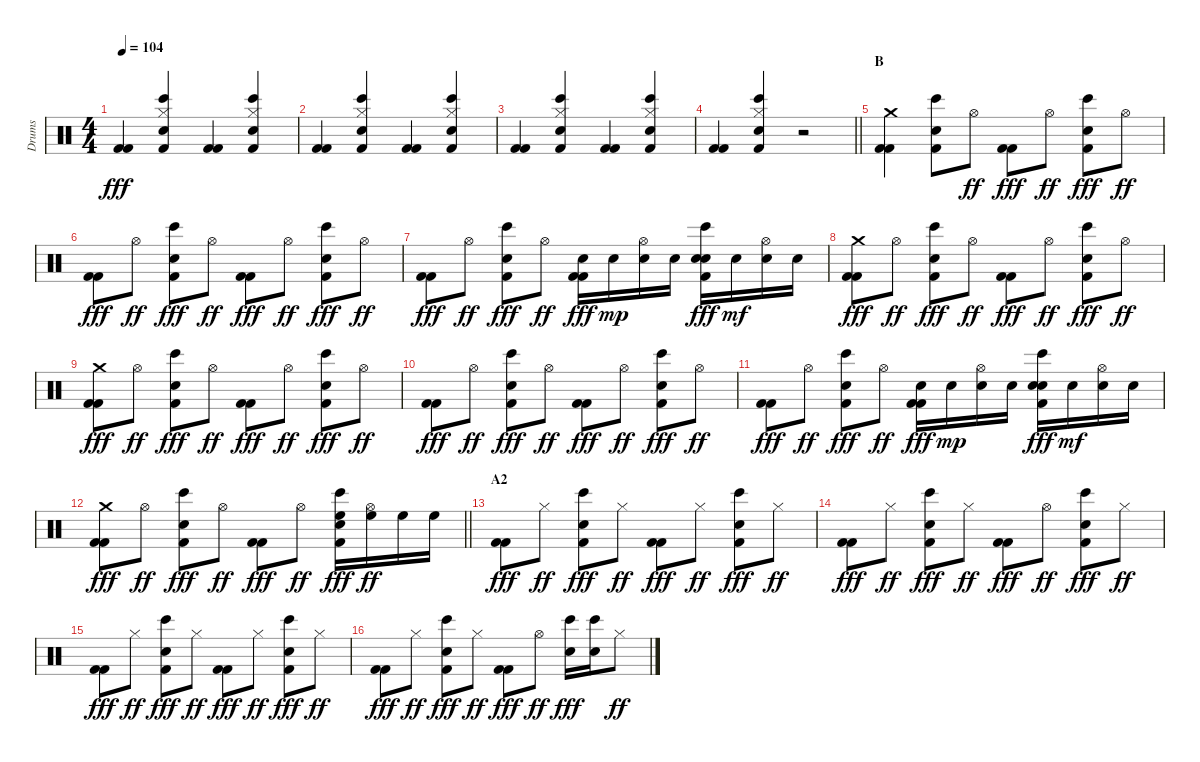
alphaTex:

\track ("Drums" "Drums") {instrument percussion}
\staff {score}
\articulation defaults
\ts (4 4)
\tempo 104
\clef neutral
\ks c
("Kick (hit) 2" "Kick (hit) 2").4{dy fff} ("Hi-Hat (closed)" "Bongo High (hit)" "Snare (hit) 2" "Kick (hit) 2").4 ("Kick (hit) 2" "Kick (hit) 2").4 ("Hi-Hat (closed)" "Bongo High (hit)" "Snare (hit) 2" "Kick (hit) 2").4 |
("Kick (hit) 2" "Kick (hit) 2").4 ("Hi-Hat (closed)" "Bongo High (hit)" "Snare (hit) 2" "Kick (hit) 2").4 ("Kick (hit) 2" "Kick (hit) 2").4 ("Hi-Hat (closed)" "Bongo High (hit)" "Snare (hit) 2" "Kick (hit) 2").4 |
("Kick (hit) 2" "Kick (hit) 2").4 ("Hi-Hat (closed)" "Bongo High (hit)" "Snare (hit) 2" "Kick (hit) 2").4 ("Kick (hit) 2" "Kick (hit) 2").4 ("Hi-Hat (closed)" "Bongo High (hit)" "Snare (hit) 2" "Kick (hit) 2").4 |
\barLineRight lightlight
("Kick (hit) 2" "Kick (hit) 2").4 ("Hi-Hat (closed)" "Bongo High (hit)" "Snare (hit) 2" "Kick (hit) 2").4 r.2 |
\section ("" "B")
("Crash medium (hit)" "Kick (hit) 2" "Kick (hit) 2").4 ("Bongo High (hit)" "Snare (hit) 2" "Kick (hit) 2").8 "Hi-Hat (open)".8{dy ff} ("Kick (hit) 2" "Kick (hit) 2").8{dy fff} "Hi-Hat (open)".8{dy ff} ("Bongo High (hit)" "Snare (hit) 2" "Kick (hit) 2").8{dy fff} "Hi-Hat (open)".8{dy ff} |
("Kick (hit) 2" "Kick (hit) 2").8{dy fff} "Hi-Hat (open)".8{dy ff} ("Bongo High (hit)" "Snare (hit) 2" "Kick (hit) 2").8{dy fff} "Hi-Hat (open)".8{dy ff} ("Kick (hit) 2" "Kick (hit) 2").8{dy fff} "Hi-Hat (open)".8{dy ff} ("Bongo High (hit)" "Snare (hit) 2" "Kick (hit) 2").8{dy fff} "Hi-Hat (open)".8{dy ff} |
("Kick (hit) 2" "Kick (hit) 2").8{dy fff} "Hi-Hat (open)".8{dy ff} ("Bongo High (hit)" "Snare (hit) 2" "Kick (hit) 2").8{dy fff} "Hi-Hat (open)".8{dy ff} ("Electric Snare (hit)" "Kick (hit) 2" "Kick (hit) 2").16{dy fff} "Electric Snare (hit)".16{dy mp} ("Hi-Hat (open)" "Electric Snare (hit)").16 "Electric Snare (hit)".16 ("Electric Snare (hit)" "Bongo High (hit)" "Snare (hit) 2" "Kick (hit) 2").16{dy fff} "Electric Snare (hit)".16{dy mf} ("Hi-Hat (open)" "Electric Snare (hit)").16 "Electric Snare (hit)".16 |
("Crash medium (hit)" "Kick (hit) 2" "Kick (hit) 2").8{dy fff} "Hi-Hat (open)".8{dy ff} ("Bongo High (hit)" "Snare (hit) 2" "Kick (hit) 2").8{dy fff} "Hi-Hat (open)".8{dy ff} ("Kick (hit) 2" "Kick (hit) 2").8{dy fff} "Hi-Hat (open)".8{dy ff} ("Bongo High (hit)" "Snare (hit) 2" "Kick (hit) 2").8{dy fff} "Hi-Hat (open)".8{dy ff} |
("Crash medium (hit)" "Kick (hit) 2" "Kick (hit) 2").8{dy fff} "Hi-Hat (open)".8{dy ff} ("Bongo High (hit)" "Snare (hit) 2" "Kick (hit) 2").8{dy fff} "Hi-Hat (open)".8{dy ff} ("Kick (hit) 2" "Kick (hit) 2").8{dy fff} "Hi-Hat (open)".8{dy ff} ("Bongo High (hit)" "Snare (hit) 2" "Kick (hit) 2").8{dy fff} "Hi-Hat (open)".8{dy ff} |
("Kick (hit) 2" "Kick (hit) 2").8{dy fff} "Hi-Hat (open)".8{dy ff} ("Bongo High (hit)" "Snare (hit) 2" "Kick (hit) 2").8{dy fff} "Hi-Hat (open)".8{dy ff} ("Kick (hit) 2" "Kick (hit) 2").8{dy fff} "Hi-Hat (open)".8{dy ff} ("Bongo High (hit)" "Snare (hit) 2" "Kick (hit) 2").8{dy fff} "Hi-Hat (open)".8{dy ff} |
("Kick (hit) 2" "Kick (hit) 2").8{dy fff} "Hi-Hat (open)".8{dy ff} ("Bongo High (hit)" "Snare (hit) 2" "Kick (hit) 2").8{dy fff} "Hi-Hat (open)".8{dy ff} ("Electric Snare (hit)" "Kick (hit) 2" "Kick (hit) 2").16{dy fff} "Electric Snare (hit)".16{dy mp} ("Hi-Hat (open)" "Electric Snare (hit)").16 "Electric Snare (hit)".16 ("Electric Snare (hit)" "Bongo High (hit)" "Snare (hit) 2" "Kick (hit) 2").16{dy fff} "Electric Snare (hit)".16{dy mf} ("Hi-Hat (open)" "Electric Snare (hit)").16 "Electric Snare (hit)".16 |
\barLineRight lightlight
("Crash medium (hit)" "Kick (hit) 2" "Kick (hit) 2").8{dy fff} "Hi-Hat (open)".8{dy ff} ("Bongo High (hit)" "Snare (hit) 2" "Kick (hit) 2").8{dy fff} "Hi-Hat (open)".8{dy ff} ("Kick (hit) 2" "Kick (hit) 2").8{dy fff} "Hi-Hat (open)".8{dy ff} ("High Floor Tom (hit)" "Bongo High (hit)" "Snare (hit) 2" "Kick (hit) 2").16{dy fff} ("Hi-Hat (open)" "High Floor Tom (hit)").16{dy ff} "High Floor Tom (hit)".16 "High Floor Tom (hit)".16 |
\section ("" "A2")
("Kick (hit) 2" "Kick (hit) 2").8{dy fff} "Hi-Hat (closed)".8{dy ff} ("Bongo High (hit)" "Snare (hit) 2" "Kick (hit) 2").8{dy fff} "Hi-Hat (closed)".8{dy ff} ("Kick (hit) 2" "Kick (hit) 2").8{dy fff} "Hi-Hat (closed)".8{dy ff} ("Bongo High (hit)" "Snare (hit) 2" "Kick (hit) 2").8{dy fff} "Hi-Hat (closed)".8{dy ff} |
("Kick (hit) 2" "Kick (hit) 2").8{dy fff} "Hi-Hat (closed)".8{dy ff} ("Bongo High (hit)" "Snare (hit) 2" "Kick (hit) 2").8{dy fff} "Hi-Hat (closed)".8{dy ff} ("Kick (hit) 2" "Kick (hit) 2").8{dy fff} "Hi-Hat (open)".8{dy ff} ("Bongo High (hit)" "Snare (hit) 2" "Kick (hit) 2").8{dy fff} "Hi-Hat (closed)".8{dy ff} |
("Kick (hit) 2" "Kick (hit) 2").8{dy fff} "Hi-Hat (closed)".8{dy ff} ("Bongo High (hit)" "Snare (hit) 2" "Kick (hit) 2").8{dy fff} "Hi-Hat (closed)".8{dy ff} ("Kick (hit) 2" "Kick (hit) 2").8{dy fff} "Hi-Hat (closed)".8{dy ff} ("Bongo High (hit)" "Snare (hit) 2" "Kick (hit) 2").8{dy fff} "Hi-Hat (closed)".8{dy ff} |
("Kick (hit) 2" "Kick (hit) 2").8{dy fff} "Hi-Hat (closed)".8{dy ff} ("Bongo High (hit)" "Snare (hit) 2" "Kick (hit) 2").8{dy fff} "Hi-Hat (closed)".8{dy ff} ("Kick (hit) 2" "Kick (hit) 2").8{dy fff} "Hi-Hat (open)".8{dy ff} ("Bongo High (hit)" "Snare (hit) 2").16{dy fff} ("Bongo High (hit)" "Snare (hit) 2").16 "Hi-Hat (closed)".8{dy ff}
